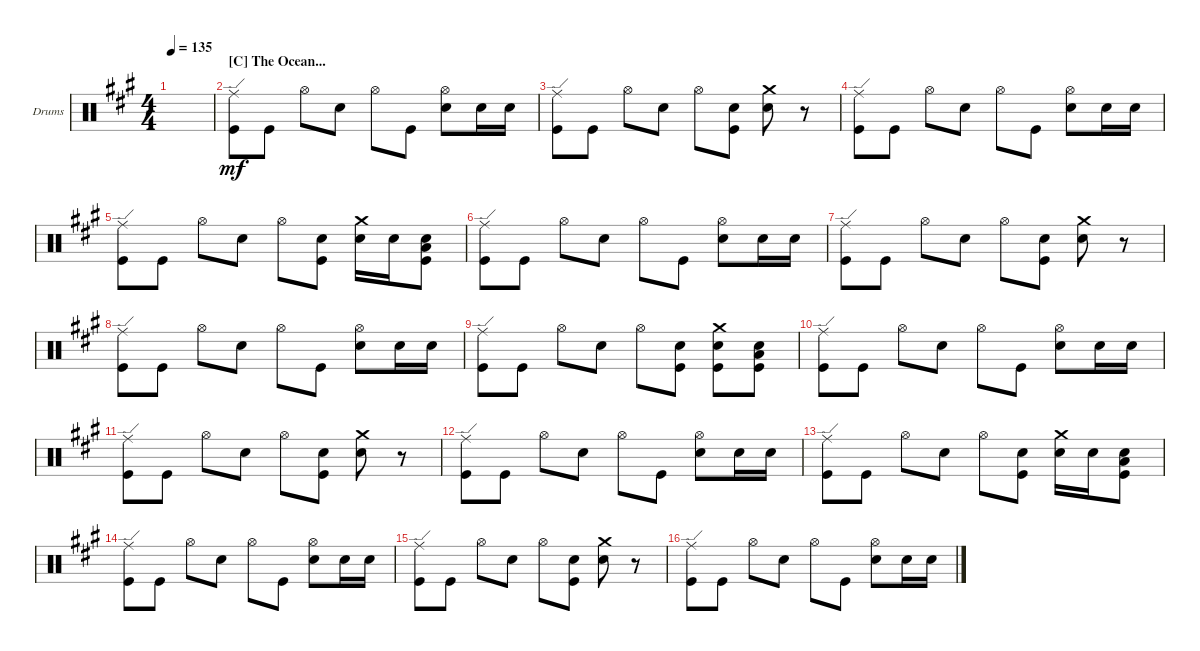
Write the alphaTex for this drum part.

\defaultSystemsLayout 4
\bracketExtendMode groupsimilarinstruments
\firstSystemTrackNameOrientation horizontal
\otherSystemsTrackNameOrientation horizontal
\track ("Drums" "Drums") {instrument percussion}
\staff {score}
\articulation defaults
\ts (4 4)
\tempo 135
\clef neutral
\scale
0.333333
\ks f#minor
|
\section ("C" "The Ocean...")
\scale
0.333333 ("Ride (edge)" "Kick (hit)").8{dy mf} "Kick (hit)".8 "Hi-Hat (open)".8 "Snare (hit) 2".8 "Hi-Hat (open)".8 "Kick (hit)".8 ("Hi-Hat (open)" "Snare (hit) 2").8 "Snare (hit) 2".16 "Snare (hit) 2".16 |
\scale
0.333333 ("Ride (edge)" "Kick (hit)").8 "Kick (hit)".8 "Hi-Hat (open)".8 "Snare (hit) 2".8 "Hi-Hat (open)".8 ("Snare (hit) 2" "Kick (hit)").8 ("Crash medium (hit)" "Snare (hit) 2").8 r.8 |
\scale
0.333333 ("Ride (edge)" "Kick (hit)").8 "Kick (hit)".8 "Hi-Hat (open)".8 "Snare (hit) 2".8 "Hi-Hat (open)".8 "Kick (hit)".8 ("Hi-Hat (open)" "Snare (hit) 2").8 "Snare (hit) 2".16 "Snare (hit) 2".16 |
("Ride (edge)" "Kick (hit)").8 "Kick (hit)".8 "Hi-Hat (open)".8 "Snare (hit) 2".8 "Hi-Hat (open)".8 ("Snare (hit) 2" "Kick (hit)").8 ("Crash medium (hit)" "Snare (hit) 2").16 "Snare (hit) 2".16 ("Low Tom (hit)" "Snare (hit) 2" "Kick (hit)").8 |
("Ride (edge)" "Kick (hit)").8 "Kick (hit)".8 "Hi-Hat (open)".8 "Snare (hit) 2".8 "Hi-Hat (open)".8 "Kick (hit)".8 ("Hi-Hat (open)" "Snare (hit) 2").8 "Snare (hit) 2".16 "Snare (hit) 2".16 |
("Ride (edge)" "Kick (hit)").8 "Kick (hit)".8 "Hi-Hat (open)".8 "Snare (hit) 2".8 "Hi-Hat (open)".8 ("Snare (hit) 2" "Kick (hit)").8 ("Crash medium (hit)" "Snare (hit) 2").8 r.8 |
("Ride (edge)" "Kick (hit)").8 "Kick (hit)".8 "Hi-Hat (open)".8 "Snare (hit) 2".8 "Hi-Hat (open)".8 "Kick (hit)".8 ("Hi-Hat (open)" "Snare (hit) 2").8 "Snare (hit) 2".16 "Snare (hit) 2".16 |
("Ride (edge)" "Kick (hit)").8 "Kick (hit)".8 "Hi-Hat (open)".8 "Snare (hit) 2".8 "Hi-Hat (open)".8 ("Snare (hit) 2" "Kick (hit)").8 ("Crash medium (hit)" "Snare (hit) 2" "Kick (hit)").8 ("Low Tom (hit)" "Snare (hit) 2" "Kick (hit)").8 |
("Ride (edge)" "Kick (hit)").8 "Kick (hit)".8 "Hi-Hat (open)".8 "Snare (hit) 2".8 "Hi-Hat (open)".8 "Kick (hit)".8 ("Hi-Hat (open)" "Snare (hit) 2").8 "Snare (hit) 2".16 "Snare (hit) 2".16 |
("Ride (edge)" "Kick (hit)").8 "Kick (hit)".8 "Hi-Hat (open)".8 "Snare (hit) 2".8 "Hi-Hat (open)".8 ("Snare (hit) 2" "Kick (hit)").8 ("Crash medium (hit)" "Snare (hit) 2").8 r.8 |
("Ride (edge)" "Kick (hit)").8 "Kick (hit)".8 "Hi-Hat (open)".8 "Snare (hit) 2".8 "Hi-Hat (open)".8 "Kick (hit)".8 ("Hi-Hat (open)" "Snare (hit) 2").8 "Snare (hit) 2".16 "Snare (hit) 2".16 |
("Ride (edge)" "Kick (hit)").8 "Kick (hit)".8 "Hi-Hat (open)".8 "Snare (hit) 2".8 "Hi-Hat (open)".8 ("Snare (hit) 2" "Kick (hit)").8 ("Crash medium (hit)" "Snare (hit) 2").16 "Snare (hit) 2".16 ("Low Tom (hit)" "Snare (hit) 2" "Kick (hit)").8 |
("Ride (edge)" "Kick (hit)").8 "Kick (hit)".8 "Hi-Hat (open)".8 "Snare (hit) 2".8 "Hi-Hat (open)".8 "Kick (hit)".8 ("Hi-Hat (open)" "Snare (hit) 2").8 "Snare (hit) 2".16 "Snare (hit) 2".16 |
("Ride (edge)" "Kick (hit)").8 "Kick (hit)".8 "Hi-Hat (open)".8 "Snare (hit) 2".8 "Hi-Hat (open)".8 ("Snare (hit) 2" "Kick (hit)").8 ("Crash medium (hit)" "Snare (hit) 2").8 r.8 |
("Ride (edge)" "Kick (hit)").8 "Kick (hit)".8 "Hi-Hat (open)".8 "Snare (hit) 2".8 "Hi-Hat (open)".8 "Kick (hit)".8 ("Hi-Hat (open)" "Snare (hit) 2").8 "Snare (hit) 2".16 "Snare (hit) 2".16
